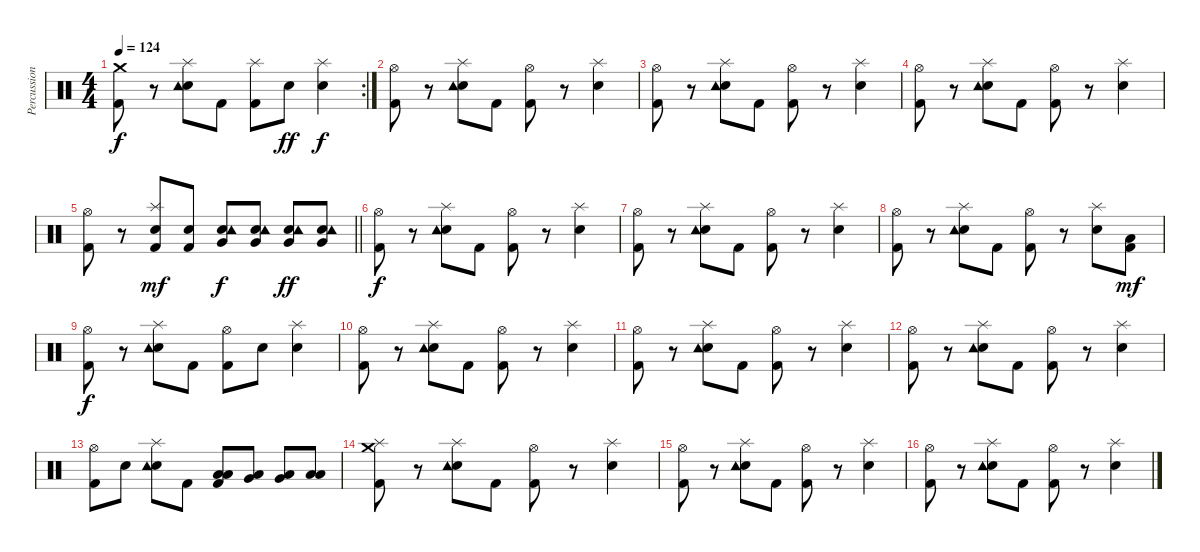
\track ("Percussion" "Percussion") {instrument percussion}
\staff {score}
\articulation defaults
\rc 2
\ts (4 4)
\tempo 124
\clef neutral
\ks c
("Crash medium (hit)" "Kick (hit) 2").8{dy f} r.8 ("Splash (hit)" "Electric Snare (hit)" "Tambourine (hit)").8 "Kick (hit) 2".8 ("Splash (hit)" "Kick (hit) 2").8 "Electric Snare (hit)".8{dy ff} ("Splash (hit)" "Electric Snare (hit)").4{dy f} |
("Hi-Hat (open)" "Kick (hit) 2").8 r.8 ("Splash (hit)" "Electric Snare (hit)" "Tambourine (hit)").8 "Kick (hit) 2".8 ("Hi-Hat (open)" "Kick (hit) 2").8 r.8 ("Splash (hit)" "Electric Snare (hit)").4 |
("Hi-Hat (open)" "Kick (hit) 2").8 r.8 ("Splash (hit)" "Electric Snare (hit)" "Tambourine (hit)").8 "Kick (hit) 2".8 ("Hi-Hat (open)" "Kick (hit) 2").8 r.8 ("Splash (hit)" "Electric Snare (hit)").4 |
("Hi-Hat (open)" "Kick (hit) 2").8 r.8 ("Splash (hit)" "Electric Snare (hit)" "Tambourine (hit)").8 "Kick (hit) 2".8 ("Hi-Hat (open)" "Kick (hit) 2").8 r.8 ("Splash (hit)" "Electric Snare (hit)").4 |
\barLineRight lightlight
("Hi-Hat (open)" "Kick (hit) 2").8 r.8 ("Splash (hit)" "Electric Snare (hit)" "Kick (hit) 2").8{dy mf} ("Electric Snare (hit)" "Kick (hit) 2").8 ("Electric Snare (hit)" "Very Low Tom (hit)" "Tambourine (hit)").8{dy f} ("Electric Snare (hit)" "Very Low Tom (hit)" "Tambourine (hit)").8 ("Electric Snare (hit)" "Very Low Tom (hit)" "Tambourine (hit)").8{dy ff} ("Electric Snare (hit)" "Very Low Tom (hit)" "Tambourine (hit)").8 |
("Hi-Hat (open)" "Kick (hit) 2").8{dy f} r.8 ("Splash (hit)" "Electric Snare (hit)" "Tambourine (hit)").8 "Kick (hit) 2".8 ("Hi-Hat (open)" "Kick (hit) 2").8 r.8 ("Splash (hit)" "Electric Snare (hit)").4 |
("Hi-Hat (open)" "Kick (hit) 2").8 r.8 ("Splash (hit)" "Electric Snare (hit)" "Tambourine (hit)").8 "Kick (hit) 2".8 ("Hi-Hat (open)" "Kick (hit) 2").8 r.8 ("Splash (hit)" "Electric Snare (hit)").4 |
("Hi-Hat (open)" "Kick (hit) 2").8 r.8 ("Splash (hit)" "Electric Snare (hit)" "Tambourine (hit)").8 "Kick (hit) 2".8 ("Hi-Hat (open)" "Kick (hit) 2").8 r.8 ("Splash (hit)" "Electric Snare (hit)").8 ("Low Tom (hit)" "Kick (hit) 2").8{dy mf} |
("Hi-Hat (open)" "Kick (hit) 2").8{dy f} r.8 ("Splash (hit)" "Electric Snare (hit)" "Tambourine (hit)").8 "Kick (hit) 2".8 ("Hi-Hat (open)" "Kick (hit) 2").8 "Electric Snare (hit)".8 ("Splash (hit)" "Electric Snare (hit)").4 |
("Hi-Hat (open)" "Kick (hit) 2").8 r.8 ("Splash (hit)" "Electric Snare (hit)" "Tambourine (hit)").8 "Kick (hit) 2".8 ("Hi-Hat (open)" "Kick (hit) 2").8 r.8 ("Splash (hit)" "Electric Snare (hit)").4 |
("Hi-Hat (open)" "Kick (hit) 2").8 r.8 ("Splash (hit)" "Electric Snare (hit)" "Tambourine (hit)").8 "Kick (hit) 2".8 ("Hi-Hat (open)" "Kick (hit) 2").8 r.8 ("Splash (hit)" "Electric Snare (hit)").4 |
("Hi-Hat (open)" "Kick (hit) 2").8 r.8 ("Splash (hit)" "Electric Snare (hit)" "Tambourine (hit)").8 "Kick (hit) 2".8 ("Hi-Hat (open)" "Kick (hit) 2").8 r.8 ("Splash (hit)" "Electric Snare (hit)").4 |
("Hi-Hat (open)" "Kick (hit) 2").8 "Electric Snare (hit)".8 ("Splash (hit)" "Electric Snare (hit)" "Tambourine (hit)").8 "Kick (hit) 2".8 ("Low Floor Tom (hit)" "Low Tom (hit)" "Kick (hit) 2").8 ("Low Floor Tom (hit)" "Very Low Tom (hit)").8 ("Low Floor Tom (hit)" "Very Low Tom (hit)").8 ("Low Floor Tom (hit)" "Low Tom (hit)").8 |
("Crash medium (hit)" "Splash (hit)" "Kick (hit) 2").8 r.8 ("Splash (hit)" "Electric Snare (hit)" "Tambourine (hit)").8 "Kick (hit) 2".8 ("Hi-Hat (open)" "Kick (hit) 2").8 r.8 ("Splash (hit)" "Electric Snare (hit)").4 |
("Hi-Hat (open)" "Kick (hit) 2").8 r.8 ("Splash (hit)" "Electric Snare (hit)" "Tambourine (hit)").8 "Kick (hit) 2".8 ("Hi-Hat (open)" "Kick (hit) 2").8 r.8 ("Splash (hit)" "Electric Snare (hit)").4 |
("Hi-Hat (open)" "Kick (hit) 2").8 r.8 ("Splash (hit)" "Electric Snare (hit)" "Tambourine (hit)").8 "Kick (hit) 2".8 ("Hi-Hat (open)" "Kick (hit) 2").8 r.8 ("Splash (hit)" "Electric Snare (hit)").4
